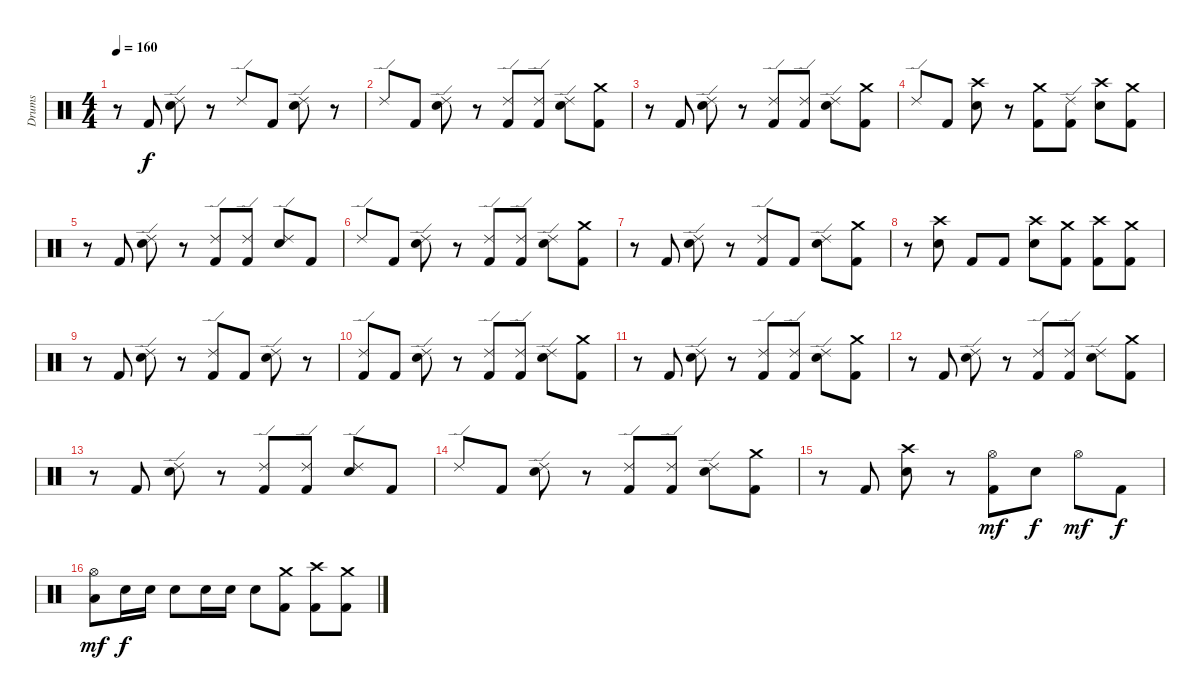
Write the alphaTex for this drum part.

\track ("Drums" "Drums") {instrument percussion}
\staff {score}
\articulation defaults
\ts (4 4)
\tempo 160
\clef neutral
\ks c
r.8{dy f} "Kick (hit) 2".8 ("Ride (edge) 2" "Snare (hit) 2").8 r.8 "Ride (edge) 2".8 "Kick (hit) 2".8 ("Ride (edge) 2" "Snare (hit) 2").8 r.8 |
"Ride (edge) 2".8 "Kick (hit) 2".8 ("Ride (edge) 2" "Snare (hit) 2").8 r.8 ("Ride (edge) 2" "Kick (hit) 2").8 ("Ride (edge) 2" "Kick (hit) 2").8 ("Ride (edge) 2" "Snare (hit) 2").8 ("Crash medium (hit)" "Kick (hit) 2").8 |
r.8 "Kick (hit) 2".8 ("Ride (edge) 2" "Snare (hit) 2").8 r.8 ("Ride (edge) 2" "Kick (hit) 2").8 ("Ride (edge) 2" "Kick (hit) 2").8 ("Ride (edge) 2" "Snare (hit) 2").8 ("Crash medium (hit)" "Kick (hit) 2").8 |
"Ride (edge) 2".8 "Kick (hit) 2".8 ("Crash high (hit)" "Snare (hit) 2").8 r.8 ("Crash medium (hit)" "Kick (hit) 2").8 ("Ride (edge) 2" "Kick (hit) 2").8 ("Crash high (hit)" "Snare (hit) 2").8 ("Crash medium (hit)" "Kick (hit) 2").8 |
r.8 "Kick (hit) 2".8 ("Ride (edge) 2" "Snare (hit) 2").8 r.8 ("Ride (edge) 2" "Kick (hit) 2").8 ("Ride (edge) 2" "Kick (hit) 2").8 ("Ride (edge) 2" "Snare (hit) 2").8 "Kick (hit) 2".8 |
"Ride (edge) 2".8 "Kick (hit) 2".8 ("Ride (edge) 2" "Snare (hit) 2").8 r.8 ("Ride (edge) 2" "Kick (hit) 2").8 ("Ride (edge) 2" "Kick (hit) 2").8 ("Ride (edge) 2" "Snare (hit) 2").8 ("Crash medium (hit)" "Kick (hit) 2").8 |
r.8 "Kick (hit) 2".8 ("Ride (edge) 2" "Snare (hit) 2").8 r.8 ("Ride (edge) 2" "Kick (hit) 2").8 "Kick (hit) 2".8 ("Ride (edge) 2" "Snare (hit) 2").8 ("Crash medium (hit)" "Kick (hit) 2").8 |
r.8 ("Crash high (hit)" "Snare (hit) 2").8 "Kick (hit) 2".8 "Kick (hit) 2".8 ("Crash high (hit)" "Snare (hit) 2").8 ("Crash medium (hit)" "Kick (hit) 2").8 ("Crash high (hit)" "Kick (hit) 2").8 ("Crash medium (hit)" "Kick (hit) 2").8 |
r.8 "Kick (hit) 2".8 ("Ride (edge) 2" "Snare (hit) 2").8 r.8 ("Ride (edge) 2" "Kick (hit) 2").8 "Kick (hit) 2".8 ("Ride (edge) 2" "Snare (hit) 2").8 r.8 |
("Ride (edge) 2" "Kick (hit) 2").8 "Kick (hit) 2".8 ("Ride (edge) 2" "Snare (hit) 2").8 r.8 ("Ride (edge) 2" "Kick (hit) 2").8 ("Ride (edge) 2" "Kick (hit) 2").8 ("Ride (edge) 2" "Snare (hit) 2").8 ("Crash medium (hit)" "Kick (hit) 2").8 |
r.8 "Kick (hit) 2".8 ("Ride (edge) 2" "Snare (hit) 2").8 r.8 ("Ride (edge) 2" "Kick (hit) 2").8 ("Ride (edge) 2" "Kick (hit) 2").8 ("Ride (edge) 2" "Snare (hit) 2").8 ("Crash medium (hit)" "Kick (hit) 2").8 |
r.8 "Kick (hit) 2".8 ("Ride (edge) 2" "Snare (hit) 2").8 r.8 ("Ride (edge) 2" "Kick (hit) 2").8 ("Ride (edge) 2" "Kick (hit) 2").8 ("Ride (edge) 2" "Snare (hit) 2").8 ("Crash medium (hit)" "Kick (hit) 2").8 |
r.8 "Kick (hit) 2".8 ("Ride (edge) 2" "Snare (hit) 2").8 r.8 ("Ride (edge) 2" "Kick (hit) 2").8 ("Ride (edge) 2" "Kick (hit) 2").8 ("Ride (edge) 2" "Snare (hit) 2").8 "Kick (hit) 2".8 |
"Ride (edge) 2".8 "Kick (hit) 2".8 ("Ride (edge) 2" "Snare (hit) 2").8 r.8 ("Ride (edge) 2" "Kick (hit) 2").8 ("Ride (edge) 2" "Kick (hit) 2").8 ("Ride (edge) 2" "Snare (hit) 2").8 ("Crash medium (hit)" "Kick (hit) 2").8 |
r.8 "Kick (hit) 2".8 ("Crash high (hit)" "Snare (hit) 2").8 r.8 ("Hi-Hat (open)" "Kick (hit) 2").8{dy mf} "Snare (hit) 2".8{dy f} "Hi-Hat (open)".8{dy mf} "Kick (hit) 2".8{dy f} |
("Hi-Hat (open)" "Low Tom (hit)").8{dy mf} "Snare (hit) 2".16{dy f} "Snare (hit) 2".16 "Snare (hit) 2".8 "Snare (hit) 2".16 "Snare (hit) 2".16 "Snare (hit) 2".8 ("Crash medium (hit)" "Kick (hit) 2").8 ("Crash high (hit)" "Kick (hit) 2").8 ("Crash medium (hit)" "Kick (hit) 2").8
